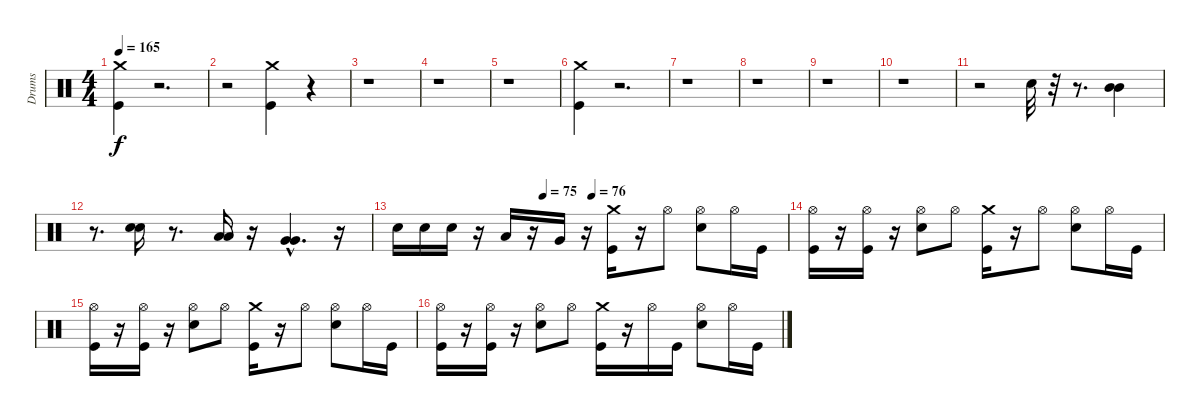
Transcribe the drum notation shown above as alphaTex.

\track ("Drums" "Drums") {instrument percussion}
\staff {score}
\articulation defaults
\ts (4 4)
\tempo 165
\clef neutral
\ks c
("Crash medium (hit)" "Kick (hit)").4{dy f} r.2{d} |
r.2 ("Crash medium (hit)" "Kick (hit)").4 r.4 |
r.1 |
r.1 |
r.1 |
("Crash medium (hit)" "Kick (hit)").4 r.2{d} |
r.1 |
r.1 |
r.1 |
r.1 |
r.2 "Electric Snare (hit)".32 r.32 r.8{d} ("Mid Tom (hit)" "Mid Tom (hit)").4 |
r.8{d} ("Electric Snare (hit)" "Electric Snare (hit)").16 r.8{d} ("Low Tom (hit)" "Low Tom (hit)").16 r.16 ("Very Low Tom (hit)"{hac} "Very Low Tom (hit)"{hac}).4{d} r.16 |
\tempo (76 0.5)
\tempo (75 0.375)
"Electric Snare (hit)".16 "Electric Snare (hit)".16 "Electric Snare (hit)".16 r.16 "Low Tom (hit)".16 r.16 "Very Low Tom (hit)".16 r.16 ("Crash medium (hit)" "Kick (hit)").16{volume 14 balance 8} r.16 "Hi-Hat (open)".8 ("Hi-Hat (open)" "Electric Snare (hit)").8 "Hi-Hat (open)".16 "Kick (hit)".16 |
("Hi-Hat (open)" "Kick (hit)").16 r.16 ("Kick (hit)" "Hi-Hat (open)").16 r.16 ("Hi-Hat (open)" "Electric Snare (hit)").8 "Hi-Hat (open)".8 ("Crash medium (hit)" "Kick (hit)").16 r.16 "Hi-Hat (open)".8 ("Hi-Hat (open)" "Electric Snare (hit)").8 "Hi-Hat (open)".16 "Kick (hit)".16 |
("Hi-Hat (open)" "Kick (hit)").16 r.16 ("Kick (hit)" "Hi-Hat (open)").16 r.16 ("Hi-Hat (open)" "Electric Snare (hit)").8 "Hi-Hat (open)".8 ("Crash medium (hit)" "Kick (hit)").16 r.16 "Hi-Hat (open)".8 ("Hi-Hat (open)" "Electric Snare (hit)").8 "Hi-Hat (open)".16 "Kick (hit)".16 |
("Hi-Hat (open)" "Kick (hit)").16 r.16 ("Kick (hit)" "Hi-Hat (open)").16 r.16 ("Hi-Hat (open)" "Electric Snare (hit)").8 "Hi-Hat (open)".8 ("Crash medium (hit)" "Kick (hit)").16 r.16 "Hi-Hat (open)".16 "Kick (hit)".16 ("Hi-Hat (open)" "Electric Snare (hit)").8 "Hi-Hat (open)".16 "Kick (hit)".16
